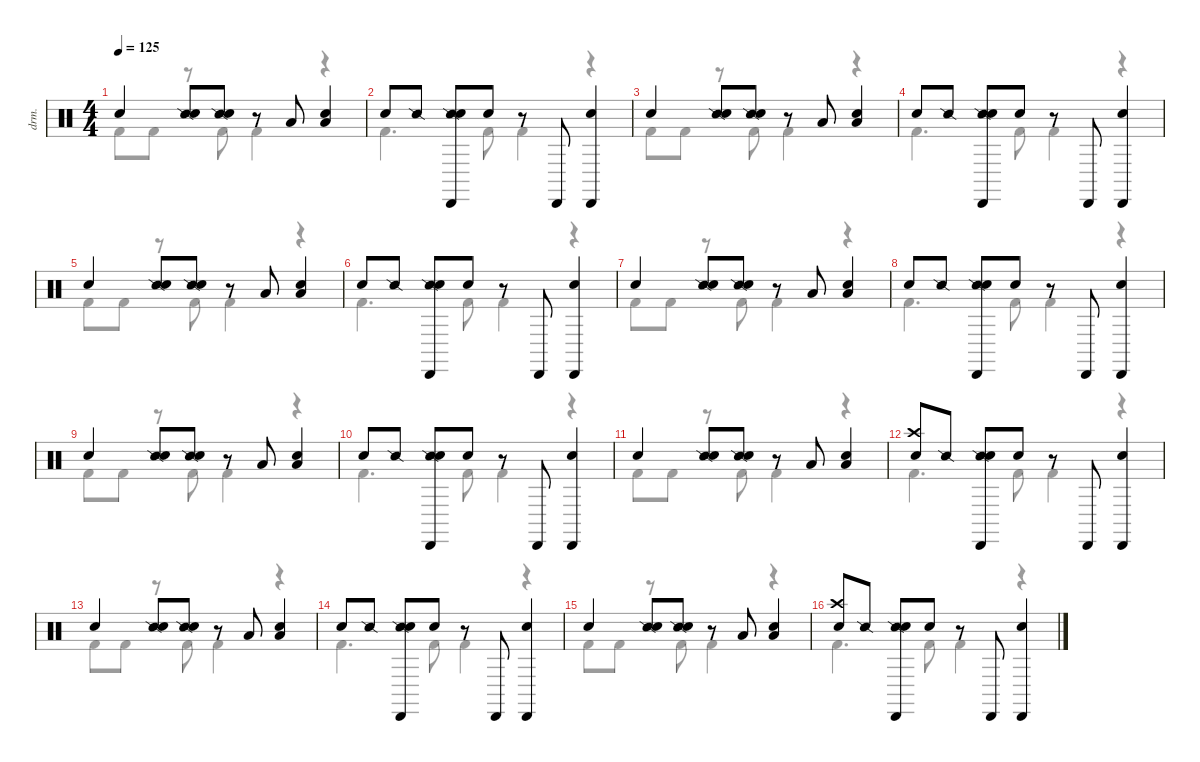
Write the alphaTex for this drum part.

\defaultSystemsLayout 4
\hideDynamics
\bracketExtendMode nobrackets
\otherSystemsTrackNameOrientation horizontal
\track ("Drums" "drm.") {instrument percussion}
\staff {score}
\articulation defaults
\voice
\ts (4 4)
\tempo 125
\clef neutral
\ks c "Hand Clap (hit)".4{dy p beam Up}
("Snare (side stick) 2" "Snare (hit) 2").8{dy mf beam Up} ("Snare (side stick) 2" "Hand Clap (hit)").8{beam Up} r.8{beam Up} "Low Tom (hit)".8{dy f beam Up} ("Low Tom (hit)" "Snare (hit) 2").4{beam Up} |
"Hand Clap (hit)".8{dy p beam Up} "Snare (side stick) 2".8{dy f beam Up} ("Snare (side stick) 2" "Cabasa (hit)" "Snare (hit) 2").8{beam Up} "Hand Clap (hit)".8{dy p beam Up} r.8{beam Up} "Cabasa (hit)".8{dy f beam Up} ("Cabasa (hit)" "Snare (hit) 2").4{beam Up} |
"Hand Clap (hit)".4{dy p beam Up} ("Snare (side stick) 2" "Snare (hit) 2").8{dy mf beam Up} ("Snare (side stick) 2" "Hand Clap (hit)").8{beam Up} r.8{beam Up} "Low Tom (hit)".8{dy f beam Up} ("Low Tom (hit)" "Snare (hit) 2").4{beam Up} |
"Hand Clap (hit)".8{dy p beam Up} "Snare (side stick) 2".8{dy f beam Up} ("Snare (side stick) 2" "Cabasa (hit)" "Snare (hit) 2").8{beam Up} "Hand Clap (hit)".8{dy p beam Up} r.8{beam Up} "Cabasa (hit)".8{dy f beam Up} ("Cabasa (hit)" "Snare (hit) 2").4{beam Up} |
"Hand Clap (hit)".4{dy p beam Up} ("Snare (side stick) 2" "Snare (hit) 2").8{dy mf beam Up} ("Snare (side stick) 2" "Hand Clap (hit)").8{beam Up} r.8{beam Up} "Low Tom (hit)".8{dy f beam Up} ("Low Tom (hit)" "Snare (hit) 2").4{beam Up} |
"Hand Clap (hit)".8{dy p beam Up} "Snare (side stick) 2".8{dy f beam Up} ("Snare (side stick) 2" "Cabasa (hit)" "Snare (hit) 2").8{beam Up} "Hand Clap (hit)".8{dy p beam Up} r.8{beam Up} "Cabasa (hit)".8{dy f beam Up} ("Cabasa (hit)" "Snare (hit) 2").4{beam Up} |
"Hand Clap (hit)".4{dy p beam Up} ("Snare (side stick) 2" "Snare (hit) 2").8{dy mf beam Up} ("Snare (side stick) 2" "Hand Clap (hit)").8{beam Up} r.8{beam Up} "Low Tom (hit)".8{dy f beam Up} ("Low Tom (hit)" "Snare (hit) 2").4{beam Up} |
"Hand Clap (hit)".8{dy p beam Up} "Snare (side stick) 2".8{dy f beam Up} ("Snare (side stick) 2" "Cabasa (hit)" "Snare (hit) 2").8{beam Up} "Hand Clap (hit)".8{dy p beam Up} r.8{beam Up} "Cabasa (hit)".8{dy f beam Up} ("Cabasa (hit)" "Snare (hit) 2").4{beam Up} |
"Hand Clap (hit)".4{dy p beam Up} ("Snare (side stick) 2" "Snare (hit) 2").8{dy mf beam Up} ("Snare (side stick) 2" "Hand Clap (hit)").8{beam Up} r.8{beam Up} "Low Tom (hit)".8{dy f beam Up} ("Low Tom (hit)" "Snare (hit) 2").4{beam Up} |
"Hand Clap (hit)".8{dy p beam Up} "Snare (side stick) 2".8{dy f beam Up} ("Snare (side stick) 2" "Cabasa (hit)" "Snare (hit) 2").8{beam Up} "Hand Clap (hit)".8{dy p beam Up} r.8{beam Up} "Cabasa (hit)".8{dy f beam Up} ("Cabasa (hit)" "Snare (hit) 2").4{beam Up} |
"Hand Clap (hit)".4{dy p beam Up} ("Snare (side stick) 2" "Snare (hit) 2").8{dy mf beam Up} ("Snare (side stick) 2" "Hand Clap (hit)").8{beam Up} r.8{beam Up} "Low Tom (hit)".8{dy f beam Up} ("Low Tom (hit)" "Snare (hit) 2").4{beam Up} |
("Crash high (hit)" "Hand Clap (hit)").8{dy mp beam Up} "Snare (side stick) 2".8{dy f beam Up} ("Snare (side stick) 2" "Cabasa (hit)" "Snare (hit) 2").8{beam Up} "Hand Clap (hit)".8{dy p beam Up} r.8{beam Up} "Cabasa (hit)".8{dy f beam Up} ("Cabasa (hit)" "Snare (hit) 2").4{beam Up} |
"Hand Clap (hit)".4{dy p beam Up} ("Snare (side stick) 2" "Snare (hit) 2").8{dy mf beam Up} ("Snare (side stick) 2" "Hand Clap (hit)").8{beam Up} r.8{beam Up} "Low Tom (hit)".8{dy f beam Up} ("Low Tom (hit)" "Snare (hit) 2").4{beam Up} |
"Hand Clap (hit)".8{dy p beam Up} "Snare (side stick) 2".8{dy f beam Up} ("Snare (side stick) 2" "Cabasa (hit)" "Snare (hit) 2").8{beam Up} "Hand Clap (hit)".8{dy p beam Up} r.8{beam Up} "Cabasa (hit)".8{dy f beam Up} ("Cabasa (hit)" "Snare (hit) 2").4{beam Up} |
"Hand Clap (hit)".4{dy p beam Up} ("Snare (side stick) 2" "Snare (hit) 2").8{dy mf beam Up} ("Snare (side stick) 2" "Hand Clap (hit)").8{beam Up} r.8{beam Up} "Low Tom (hit)".8{dy f beam Up} ("Low Tom (hit)" "Snare (hit) 2").4{beam Up} |
("Crash high (hit)" "Hand Clap (hit)").8{dy mp beam Up} "Snare (side stick) 2".8{dy f beam Up} ("Snare (side stick) 2" "Cabasa (hit)" "Snare (hit) 2").8{beam Up} "Hand Clap (hit)".8{dy p beam Up} r.8{beam Up} "Cabasa (hit)".8{dy f beam Up} ("Cabasa (hit)" "Snare (hit) 2").4{beam Up}
\voice
\clef neutral
\ottava regular
\simile none
\ks c "Kick (hit) 2".8{dy ff beam Down} "Kick (hit) 2".8{dy p beam Down}
r.8{beam Down} "Kick (hit) 2".8{dy ff beam Down} "Kick (hit) 2".4{dy p beam Down} r.4{beam Down} |
"Kick (hit) 2".4{d dy ff beam Down} "Kick (hit) 2".8{beam Down} "Kick (hit) 2".4{dy p beam Down} r.4{beam Down} |
"Kick (hit) 2".8{dy ff beam Down} "Kick (hit) 2".8{dy p beam Down} r.8{beam Down} "Kick (hit) 2".8{dy ff beam Down} "Kick (hit) 2".4{dy p beam Down} r.4{beam Down} |
"Kick (hit) 2".4{d dy ff beam Down} "Kick (hit) 2".8{beam Down} "Kick (hit) 2".4{dy p beam Down} r.4{beam Down} |
"Kick (hit) 2".8{dy ff beam Down} "Kick (hit) 2".8{dy p beam Down} r.8{beam Down} "Kick (hit) 2".8{dy ff beam Down} "Kick (hit) 2".4{dy p beam Down} r.4{beam Down} |
"Kick (hit) 2".4{d dy ff beam Down} "Kick (hit) 2".8{beam Down} "Kick (hit) 2".4{dy p beam Down} r.4{beam Down} |
"Kick (hit) 2".8{dy ff beam Down} "Kick (hit) 2".8{dy p beam Down} r.8{beam Down} "Kick (hit) 2".8{dy ff beam Down} "Kick (hit) 2".4{dy p beam Down} r.4{beam Down} |
"Kick (hit) 2".4{d dy ff beam Down} "Kick (hit) 2".8{beam Down} "Kick (hit) 2".4{dy p beam Down} r.4{beam Down} |
"Kick (hit) 2".8{dy ff beam Down} "Kick (hit) 2".8{dy p beam Down} r.8{beam Down} "Kick (hit) 2".8{dy ff beam Down} "Kick (hit) 2".4{dy p beam Down} r.4{beam Down} |
"Kick (hit) 2".4{d dy ff beam Down} "Kick (hit) 2".8{beam Down} "Kick (hit) 2".4{dy p beam Down} r.4{beam Down} |
"Kick (hit) 2".8{dy ff beam Down} "Kick (hit) 2".8{dy p beam Down} r.8{beam Down} "Kick (hit) 2".8{dy ff beam Down} "Kick (hit) 2".4{dy p beam Down} r.4{beam Down} |
"Kick (hit) 2".4{d dy ff beam Down} "Kick (hit) 2".8{beam Down} "Kick (hit) 2".4{dy p beam Down} r.4{beam Down} |
"Kick (hit) 2".8{dy ff beam Down} "Kick (hit) 2".8{dy p beam Down} r.8{beam Down} "Kick (hit) 2".8{dy ff beam Down} "Kick (hit) 2".4{dy p beam Down} r.4{beam Down} |
"Kick (hit) 2".4{d dy ff beam Down} "Kick (hit) 2".8{beam Down} "Kick (hit) 2".4{dy p beam Down} r.4{beam Down} |
"Kick (hit) 2".8{dy ff beam Down} "Kick (hit) 2".8{dy p beam Down} r.8{beam Down} "Kick (hit) 2".8{dy ff beam Down} "Kick (hit) 2".4{dy p beam Down} r.4{beam Down} |
"Kick (hit) 2".4{d dy ff beam Down} "Kick (hit) 2".8{beam Down} "Kick (hit) 2".4{dy p beam Down} r.4{beam Down}
